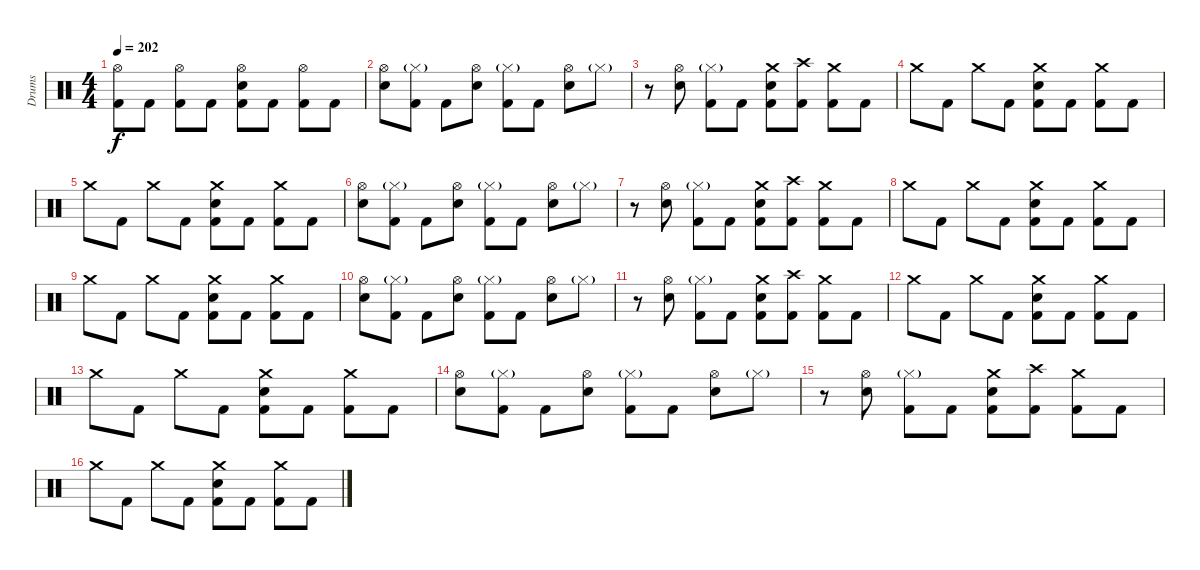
\track ("Drums" "Drums") {instrument percussion}
\staff {score}
\articulation defaults
\ts (4 4)
\tempo 202
\clef neutral
\ks c
("Hi-Hat (open)" "Kick (hit) 2").8{dy f} "Kick (hit) 2".8 ("Hi-Hat (open)" "Kick (hit) 2").8 "Kick (hit) 2".8 ("Hi-Hat (open)" "Electric Snare (hit)" "Kick (hit) 2").8 "Kick (hit) 2".8 ("Hi-Hat (open)" "Kick (hit) 2").8 "Kick (hit) 2".8 |
("Hi-Hat (open)" "Electric Snare (hit)").8 ("Hi-Hat (closed)"{g} "Kick (hit) 2").8 "Kick (hit) 2".8 ("Hi-Hat (open)" "Electric Snare (hit)").8 ("Hi-Hat (closed)"{g} "Kick (hit) 2").8 "Kick (hit) 2".8 ("Hi-Hat (open)" "Electric Snare (hit)").8 "Hi-Hat (closed)"{g}.8 |
r.8 ("Hi-Hat (open)" "Electric Snare (hit)").8 ("Hi-Hat (closed)"{g} "Kick (hit) 2").8 "Kick (hit) 2".8 ("Crash medium (hit)" "Electric Snare (hit)" "Kick (hit) 2").8 ("Crash high (hit)" "Kick (hit) 2").8 ("Crash medium (hit)" "Kick (hit) 2").8 "Kick (hit) 2".8 |
"Crash medium (hit)".8 "Kick (hit) 2".8 "Crash medium (hit)".8 "Kick (hit) 2".8 ("Crash medium (hit)" "Electric Snare (hit)" "Kick (hit) 2").8 "Kick (hit) 2".8 ("Crash medium (hit)" "Kick (hit) 2").8 "Kick (hit) 2".8 |
"Crash medium (hit)".8 "Kick (hit) 2".8 "Crash medium (hit)".8 "Kick (hit) 2".8 ("Crash medium (hit)" "Electric Snare (hit)" "Kick (hit) 2").8 "Kick (hit) 2".8 ("Crash medium (hit)" "Kick (hit) 2").8 "Kick (hit) 2".8 |
("Hi-Hat (open)" "Electric Snare (hit)").8 ("Hi-Hat (closed)"{g} "Kick (hit) 2").8 "Kick (hit) 2".8 ("Hi-Hat (open)" "Electric Snare (hit)").8 ("Hi-Hat (closed)"{g} "Kick (hit) 2").8 "Kick (hit) 2".8 ("Hi-Hat (open)" "Electric Snare (hit)").8 "Hi-Hat (closed)"{g}.8 |
r.8 ("Hi-Hat (open)" "Electric Snare (hit)").8 ("Hi-Hat (closed)"{g} "Kick (hit) 2").8 "Kick (hit) 2".8 ("Crash medium (hit)" "Electric Snare (hit)" "Kick (hit) 2").8 ("Crash high (hit)" "Kick (hit) 2").8 ("Crash medium (hit)" "Kick (hit) 2").8 "Kick (hit) 2".8 |
"Crash medium (hit)".8 "Kick (hit) 2".8 "Crash medium (hit)".8 "Kick (hit) 2".8 ("Crash medium (hit)" "Electric Snare (hit)" "Kick (hit) 2").8 "Kick (hit) 2".8 ("Crash medium (hit)" "Kick (hit) 2").8 "Kick (hit) 2".8 |
"Crash medium (hit)".8 "Kick (hit) 2".8 "Crash medium (hit)".8 "Kick (hit) 2".8 ("Crash medium (hit)" "Electric Snare (hit)" "Kick (hit) 2").8 "Kick (hit) 2".8 ("Crash medium (hit)" "Kick (hit) 2").8 "Kick (hit) 2".8 |
("Hi-Hat (open)" "Electric Snare (hit)").8 ("Hi-Hat (closed)"{g} "Kick (hit) 2").8 "Kick (hit) 2".8 ("Hi-Hat (open)" "Electric Snare (hit)").8 ("Hi-Hat (closed)"{g} "Kick (hit) 2").8 "Kick (hit) 2".8 ("Hi-Hat (open)" "Electric Snare (hit)").8 "Hi-Hat (closed)"{g}.8 |
r.8 ("Hi-Hat (open)" "Electric Snare (hit)").8 ("Hi-Hat (closed)"{g} "Kick (hit) 2").8 "Kick (hit) 2".8 ("Crash medium (hit)" "Electric Snare (hit)" "Kick (hit) 2").8 ("Crash high (hit)" "Kick (hit) 2").8 ("Crash medium (hit)" "Kick (hit) 2").8 "Kick (hit) 2".8 |
"Crash medium (hit)".8 "Kick (hit) 2".8 "Crash medium (hit)".8 "Kick (hit) 2".8 ("Crash medium (hit)" "Electric Snare (hit)" "Kick (hit) 2").8 "Kick (hit) 2".8 ("Crash medium (hit)" "Kick (hit) 2").8 "Kick (hit) 2".8 |
"Crash medium (hit)".8 "Kick (hit) 2".8 "Crash medium (hit)".8 "Kick (hit) 2".8 ("Crash medium (hit)" "Electric Snare (hit)" "Kick (hit) 2").8 "Kick (hit) 2".8 ("Crash medium (hit)" "Kick (hit) 2").8 "Kick (hit) 2".8 |
("Hi-Hat (open)" "Electric Snare (hit)").8 ("Hi-Hat (closed)"{g} "Kick (hit) 2").8 "Kick (hit) 2".8 ("Hi-Hat (open)" "Electric Snare (hit)").8 ("Hi-Hat (closed)"{g} "Kick (hit) 2").8 "Kick (hit) 2".8 ("Hi-Hat (open)" "Electric Snare (hit)").8 "Hi-Hat (closed)"{g}.8 |
r.8 ("Hi-Hat (open)" "Electric Snare (hit)").8 ("Hi-Hat (closed)"{g} "Kick (hit) 2").8 "Kick (hit) 2".8 ("Crash medium (hit)" "Electric Snare (hit)" "Kick (hit) 2").8 ("Crash high (hit)" "Kick (hit) 2").8 ("Crash medium (hit)" "Kick (hit) 2").8 "Kick (hit) 2".8 |
"Crash medium (hit)".8 "Kick (hit) 2".8 "Crash medium (hit)".8 "Kick (hit) 2".8 ("Crash medium (hit)" "Electric Snare (hit)" "Kick (hit) 2").8 "Kick (hit) 2".8 ("Crash medium (hit)" "Kick (hit) 2").8 "Kick (hit) 2".8
